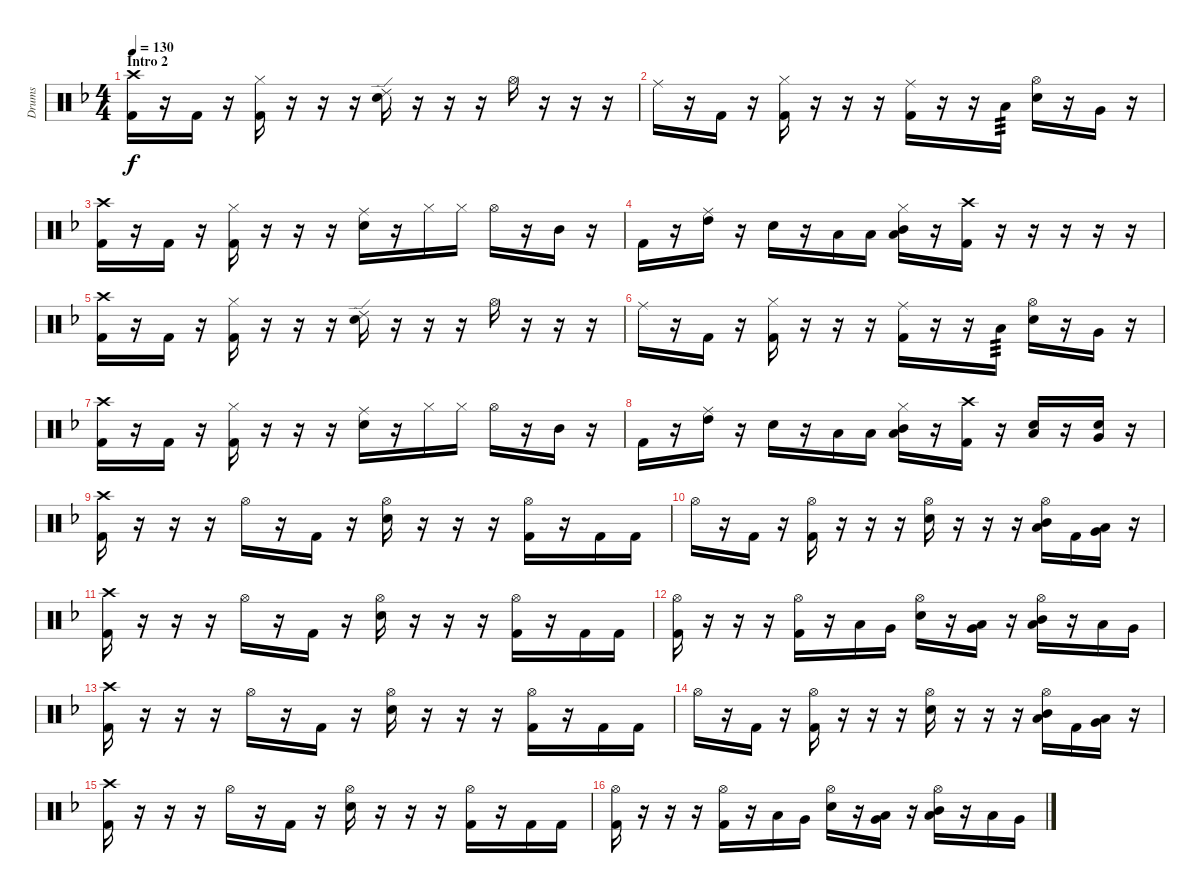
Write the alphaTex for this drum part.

\track ("Drums" "Drums") {instrument percussion}
\staff {score}
\articulation defaults
\ts (4 4)
\section ("" "Intro 2")
\tempo 130
\clef neutral
\ks dminor
("Kick (hit) 2" "Crash high (hit)").16{dy f} r.16 "Kick (hit) 2".16 r.16 ("Kick (hit) 2" "Hi-Hat (closed)").16 r.16 r.16 r.16 ("Snare (hit) 2" "Ride (edge) 2").16 r.16 r.16 r.16 "Hi-Hat (open)".16 r.16 r.16 r.16 |
"Ride (middle)".16 r.16 "Kick (hit) 2".16 r.16 ("Kick (hit) 2" "Hi-Hat (closed)").16 r.16 r.16 r.16 ("Kick (hit) 2" "Ride (middle)").16 r.16 r.16 "Low Tom (hit)".16{tp 3} ("Snare (hit) 2" "Hi-Hat (open)").16 r.16 "Very Low Tom (hit)".16 r.16 |
("Kick (hit) 2" "Crash high (hit)").16 r.16 "Kick (hit) 2".16 r.16 ("Kick (hit) 2" "Hi-Hat (closed)").16 r.16 r.16 r.16 ("Snare (hit) 2" "Ride (middle)").16 r.16 "Hi-Hat (closed)".16 "Hi-Hat (closed)".16 "Hi-Hat (open)".16 r.16 "Mid Tom (hit)".16 r.16 |
"Kick (hit) 2".16 r.16 ("High Tom (hit)" "Ride (middle)").16 r.16 "Snare (hit) 2".16 r.16 "Low Tom (hit)".16 "Low Tom (hit)".16 ("Low Tom (hit)" "Mid Tom (hit)" "Hi-Hat (closed)").16 r.16 ("Crash high (hit)" "Kick (hit) 2").16 r.16 r.16 r.16 r.16 r.16 |
("Kick (hit) 2" "Crash high (hit)").16 r.16 "Kick (hit) 2".16 r.16 ("Kick (hit) 2" "Hi-Hat (closed)").16 r.16 r.16 r.16 ("Snare (hit) 2" "Ride (edge) 2").16 r.16 r.16 r.16 "Hi-Hat (open)".16 r.16 r.16 r.16 |
"Ride (middle)".16 r.16 "Kick (hit) 2".16 r.16 ("Kick (hit) 2" "Hi-Hat (closed)").16 r.16 r.16 r.16 ("Kick (hit) 2" "Ride (middle)").16 r.16 r.16 "Low Tom (hit)".16{tp 3} ("Snare (hit) 2" "Hi-Hat (open)").16 r.16 "Very Low Tom (hit)".16 r.16 |
("Kick (hit) 2" "Crash high (hit)").16 r.16 "Kick (hit) 2".16 r.16 ("Kick (hit) 2" "Hi-Hat (closed)").16 r.16 r.16 r.16 ("Snare (hit) 2" "Ride (middle)").16 r.16 "Hi-Hat (closed)".16 "Hi-Hat (closed)".16 "Hi-Hat (open)".16 r.16 "Mid Tom (hit)".16 r.16 |
"Kick (hit) 2".16 r.16 ("High Tom (hit)" "Ride (middle)").16 r.16 "Snare (hit) 2".16 r.16 "Low Tom (hit)".16 "Low Tom (hit)".16 ("Low Tom (hit)" "Mid Tom (hit)" "Hi-Hat (closed)").16 r.16 ("Crash high (hit)" "Kick (hit) 2").16 r.16 ("Snare (hit) 2" "Low Tom (hit)").16 r.16 ("Snare (hit) 2" "Very Low Tom (hit)").16 r.16 |
("Kick (hit) 2" "Crash high (hit)").16 r.16 r.16 r.16 "Hi-Hat (open)".16 r.16 "Kick (hit) 2".16 r.16 ("Snare (hit) 2" "Hi-Hat (open)").16 r.16 r.16 r.16 ("Hi-Hat (open)" "Kick (hit) 2").16 r.16 "Kick (hit) 2".16 "Kick (hit) 2".16 |
"Hi-Hat (open)".16 r.16 "Kick (hit) 2".16 r.16 ("Kick (hit) 2" "Hi-Hat (open)").16 r.16 r.16 r.16 ("Snare (hit) 2" "Hi-Hat (open)").16 r.16 r.16 r.16 ("Hi-Hat (open)" "Mid Tom (hit)" "Low Tom (hit)").16 "Kick (hit) 2".16 ("Low Tom (hit)" "Very Low Tom (hit)").16 r.16 |
("Kick (hit) 2" "Crash high (hit)").16 r.16 r.16 r.16 "Hi-Hat (open)".16 r.16 "Kick (hit) 2".16 r.16 ("Snare (hit) 2" "Hi-Hat (open)").16 r.16 r.16 r.16 ("Hi-Hat (open)" "Kick (hit) 2").16 r.16 "Kick (hit) 2".16 "Kick (hit) 2".16 |
("Hi-Hat (open)" "Kick (hit) 2").16 r.16 r.16 r.16 ("Kick (hit) 2" "Hi-Hat (open)").16 r.16 "Low Tom (hit)".16 "Very Low Tom (hit)".16 ("Snare (hit) 2" "Hi-Hat (open)").16 r.16 ("Very Low Tom (hit)" "Low Tom (hit)").16 r.16 ("Hi-Hat (open)" "Mid Tom (hit)" "Low Tom (hit)").16 r.16 "Low Tom (hit)".16 "Very Low Tom (hit)".16 |
("Kick (hit) 2" "Crash high (hit)").16 r.16 r.16 r.16 "Hi-Hat (open)".16 r.16 "Kick (hit) 2".16 r.16 ("Snare (hit) 2" "Hi-Hat (open)").16 r.16 r.16 r.16 ("Hi-Hat (open)" "Kick (hit) 2").16 r.16 "Kick (hit) 2".16 "Kick (hit) 2".16 |
"Hi-Hat (open)".16 r.16 "Kick (hit) 2".16 r.16 ("Kick (hit) 2" "Hi-Hat (open)").16 r.16 r.16 r.16 ("Snare (hit) 2" "Hi-Hat (open)").16 r.16 r.16 r.16 ("Hi-Hat (open)" "Mid Tom (hit)" "Low Tom (hit)").16 "Kick (hit) 2".16 ("Low Tom (hit)" "Very Low Tom (hit)").16 r.16 |
("Kick (hit) 2" "Crash high (hit)").16 r.16 r.16 r.16 "Hi-Hat (open)".16 r.16 "Kick (hit) 2".16 r.16 ("Snare (hit) 2" "Hi-Hat (open)").16 r.16 r.16 r.16 ("Hi-Hat (open)" "Kick (hit) 2").16 r.16 "Kick (hit) 2".16 "Kick (hit) 2".16 |
("Hi-Hat (open)" "Kick (hit) 2").16 r.16 r.16 r.16 ("Kick (hit) 2" "Hi-Hat (open)").16 r.16 "Low Tom (hit)".16 "Very Low Tom (hit)".16 ("Snare (hit) 2" "Hi-Hat (open)").16 r.16 ("Very Low Tom (hit)" "Low Tom (hit)").16 r.16 ("Hi-Hat (open)" "Mid Tom (hit)" "Low Tom (hit)").16 r.16 "Low Tom (hit)".16 "Very Low Tom (hit)".16
